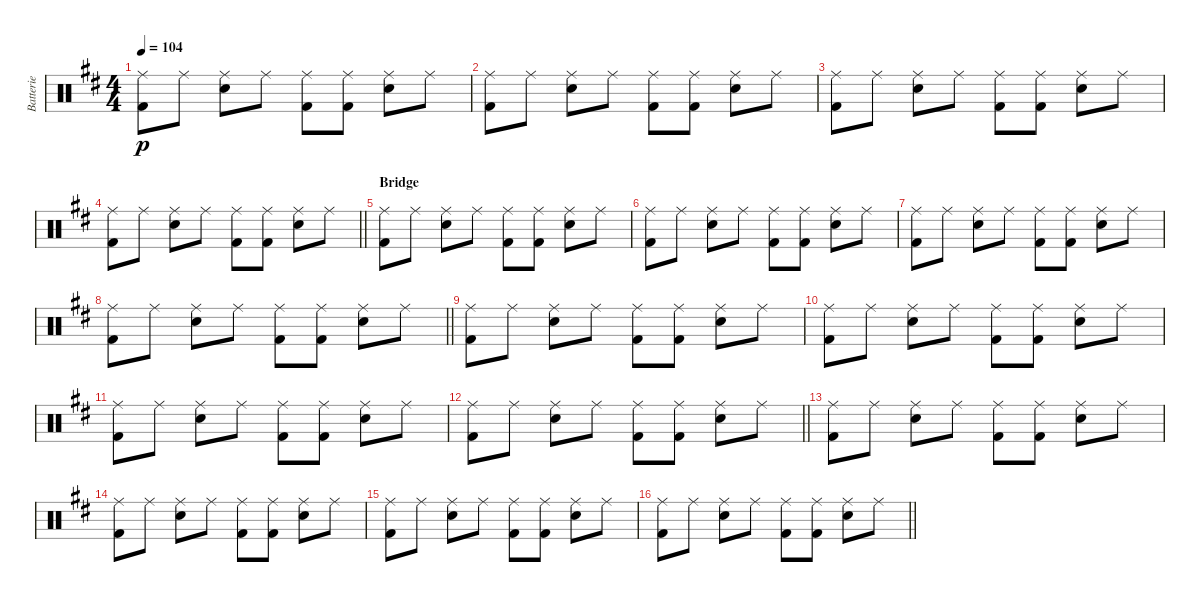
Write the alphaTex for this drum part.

\track ("Batterie" "Batterie") {instrument percussion}
\staff {score}
\articulation defaults
\ts (4 4)
\tempo 104
\clef neutral
\ks d
("Ride (middle)" "Kick (hit) 2").8{dy p} "Ride (middle)".8 ("Ride (middle)" "Snare (hit) 2").8 "Ride (middle)".8 ("Ride (middle)" "Kick (hit) 2").8 ("Ride (middle)" "Kick (hit) 2").8 ("Ride (middle)" "Snare (hit) 2").8 "Ride (middle)".8 |
("Ride (middle)" "Kick (hit) 2").8 "Ride (middle)".8 ("Ride (middle)" "Snare (hit) 2").8 "Ride (middle)".8 ("Ride (middle)" "Kick (hit) 2").8 ("Ride (middle)" "Kick (hit) 2").8 ("Ride (middle)" "Snare (hit) 2").8 "Ride (middle)".8 |
("Ride (middle)" "Kick (hit) 2").8 "Ride (middle)".8 ("Ride (middle)" "Snare (hit) 2").8 "Ride (middle)".8 ("Ride (middle)" "Kick (hit) 2").8 ("Ride (middle)" "Kick (hit) 2").8 ("Ride (middle)" "Snare (hit) 2").8 "Ride (middle)".8 |
\barLineRight lightlight
("Ride (middle)" "Kick (hit) 2").8 "Ride (middle)".8 ("Ride (middle)" "Snare (hit) 2").8 "Ride (middle)".8 ("Ride (middle)" "Kick (hit) 2").8 ("Ride (middle)" "Kick (hit) 2").8 ("Ride (middle)" "Snare (hit) 2").8 "Ride (middle)".8 |
\section ("" "Bridge")
("Ride (middle)" "Kick (hit) 2").8 "Ride (middle)".8 ("Ride (middle)" "Snare (hit) 2").8 "Ride (middle)".8 ("Ride (middle)" "Kick (hit) 2").8 ("Ride (middle)" "Kick (hit) 2").8 ("Ride (middle)" "Snare (hit) 2").8 "Ride (middle)".8 |
("Ride (middle)" "Kick (hit) 2").8 "Ride (middle)".8 ("Ride (middle)" "Snare (hit) 2").8 "Ride (middle)".8 ("Ride (middle)" "Kick (hit) 2").8 ("Ride (middle)" "Kick (hit) 2").8 ("Ride (middle)" "Snare (hit) 2").8 "Ride (middle)".8 |
("Ride (middle)" "Kick (hit) 2").8 "Ride (middle)".8 ("Ride (middle)" "Snare (hit) 2").8 "Ride (middle)".8 ("Ride (middle)" "Kick (hit) 2").8 ("Ride (middle)" "Kick (hit) 2").8 ("Ride (middle)" "Snare (hit) 2").8 "Ride (middle)".8 |
\barLineRight lightlight
("Ride (middle)" "Kick (hit) 2").8 "Ride (middle)".8 ("Ride (middle)" "Snare (hit) 2").8 "Ride (middle)".8 ("Ride (middle)" "Kick (hit) 2").8 ("Ride (middle)" "Kick (hit) 2").8 ("Ride (middle)" "Snare (hit) 2").8 "Ride (middle)".8 |
("Ride (middle)" "Kick (hit) 2").8 "Ride (middle)".8 ("Ride (middle)" "Snare (hit) 2").8 "Ride (middle)".8 ("Ride (middle)" "Kick (hit) 2").8 ("Ride (middle)" "Kick (hit) 2").8 ("Ride (middle)" "Snare (hit) 2").8 "Ride (middle)".8 |
("Ride (middle)" "Kick (hit) 2").8 "Ride (middle)".8 ("Ride (middle)" "Snare (hit) 2").8 "Ride (middle)".8 ("Ride (middle)" "Kick (hit) 2").8 ("Ride (middle)" "Kick (hit) 2").8 ("Ride (middle)" "Snare (hit) 2").8 "Ride (middle)".8 |
("Ride (middle)" "Kick (hit) 2").8 "Ride (middle)".8 ("Ride (middle)" "Snare (hit) 2").8 "Ride (middle)".8 ("Ride (middle)" "Kick (hit) 2").8 ("Ride (middle)" "Kick (hit) 2").8 ("Ride (middle)" "Snare (hit) 2").8 "Ride (middle)".8 |
\barLineRight lightlight
("Ride (middle)" "Kick (hit) 2").8 "Ride (middle)".8 ("Ride (middle)" "Snare (hit) 2").8 "Ride (middle)".8 ("Ride (middle)" "Kick (hit) 2").8 ("Ride (middle)" "Kick (hit) 2").8 ("Ride (middle)" "Snare (hit) 2").8 "Ride (middle)".8 |
("Ride (middle)" "Kick (hit) 2").8 "Ride (middle)".8 ("Ride (middle)" "Snare (hit) 2").8 "Ride (middle)".8 ("Ride (middle)" "Kick (hit) 2").8 ("Ride (middle)" "Kick (hit) 2").8 ("Ride (middle)" "Snare (hit) 2").8 "Ride (middle)".8 |
("Ride (middle)" "Kick (hit) 2").8 "Ride (middle)".8 ("Ride (middle)" "Snare (hit) 2").8 "Ride (middle)".8 ("Ride (middle)" "Kick (hit) 2").8 ("Ride (middle)" "Kick (hit) 2").8 ("Ride (middle)" "Snare (hit) 2").8 "Ride (middle)".8 |
("Ride (middle)" "Kick (hit) 2").8 "Ride (middle)".8 ("Ride (middle)" "Snare (hit) 2").8 "Ride (middle)".8 ("Ride (middle)" "Kick (hit) 2").8 ("Ride (middle)" "Kick (hit) 2").8 ("Ride (middle)" "Snare (hit) 2").8 "Ride (middle)".8 |
\barLineRight lightlight
("Ride (middle)" "Kick (hit) 2").8 "Ride (middle)".8 ("Ride (middle)" "Snare (hit) 2").8 "Ride (middle)".8 ("Ride (middle)" "Kick (hit) 2").8 ("Ride (middle)" "Kick (hit) 2").8 ("Ride (middle)" "Snare (hit) 2").8 "Ride (middle)".8
